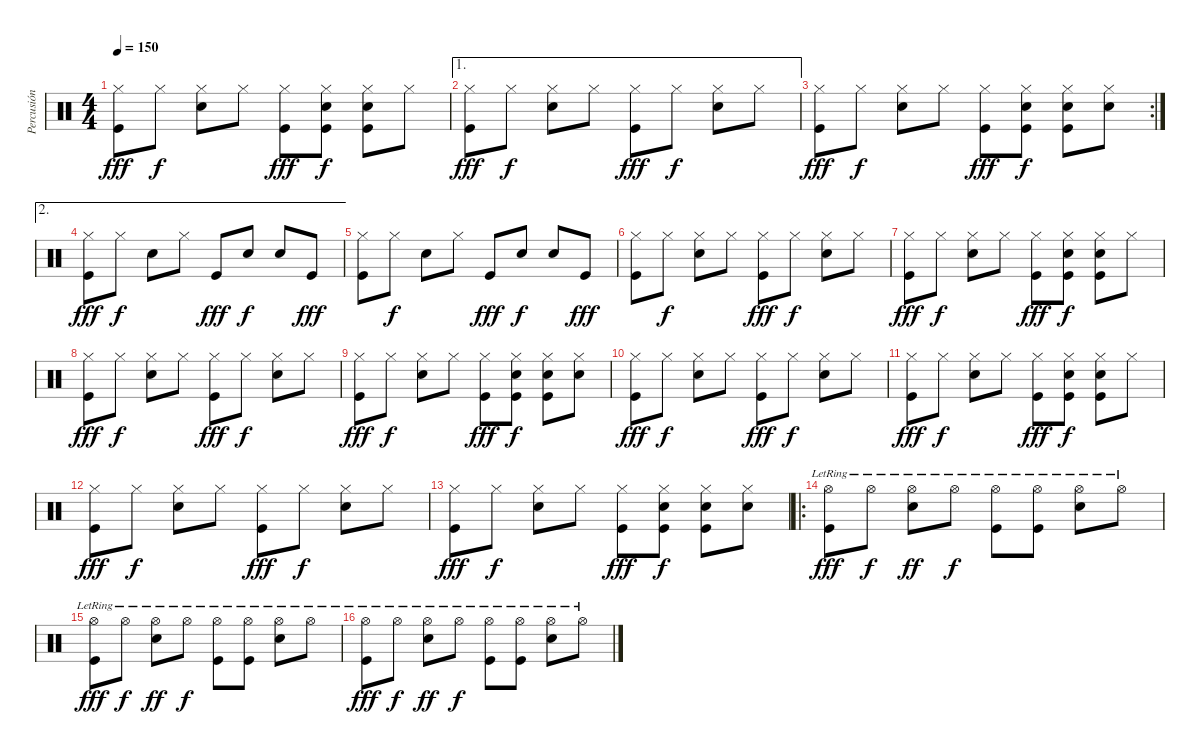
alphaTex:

\track ("Percusión" "Percusión") {instrument percussion}
\staff {score}
\articulation defaults
\ts (4 4)
\tempo 150
\clef neutral
\ks c
("Kick (hit)" "Hi-Hat (closed)").8{dy fff} "Hi-Hat (closed)".8{dy f} ("Snare (hit) 2" "Hi-Hat (closed)").8 "Hi-Hat (closed)".8 ("Kick (hit)" "Hi-Hat (closed)").8{dy fff} ("Snare (hit) 2" "Hi-Hat (closed)" "Kick (hit)").8{dy f} ("Snare (hit) 2" "Hi-Hat (closed)" "Kick (hit)").8 "Hi-Hat (closed)".8 |
\ae 1
("Kick (hit)" "Hi-Hat (closed)").8{dy fff} "Hi-Hat (closed)".8{dy f} ("Snare (hit) 2" "Hi-Hat (closed)").8 "Hi-Hat (closed)".8 ("Kick (hit)" "Hi-Hat (closed)").8{dy fff} "Hi-Hat (closed)".8{dy f} ("Snare (hit) 2" "Hi-Hat (closed)").8 "Hi-Hat (closed)".8 |
\rc 2
("Kick (hit)" "Hi-Hat (closed)").8{dy fff} "Hi-Hat (closed)".8{dy f} ("Snare (hit) 2" "Hi-Hat (closed)").8 "Hi-Hat (closed)".8 ("Kick (hit)" "Hi-Hat (closed)").8{dy fff} ("Snare (hit) 2" "Hi-Hat (closed)" "Kick (hit)").8{dy f} ("Snare (hit) 2" "Hi-Hat (closed)" "Kick (hit)").8 ("Snare (hit) 2" "Hi-Hat (closed)").8 |
\ae 2
("Kick (hit)" "Hi-Hat (closed)").8{dy fff} "Hi-Hat (closed)".8{dy f} "Snare (hit) 2".8 "Hi-Hat (closed)".8 "Kick (hit)".8{dy fff} "Snare (hit) 2".8{dy f} "Snare (hit) 2".8 "Kick (hit)".8{dy fff} |
("Kick (hit)" "Hi-Hat (closed)").8 "Hi-Hat (closed)".8{dy f} "Snare (hit) 2".8 "Hi-Hat (closed)".8 "Kick (hit)".8{dy fff} "Snare (hit) 2".8{dy f} "Snare (hit) 2".8 "Kick (hit)".8{dy fff} |
("Kick (hit)" "Hi-Hat (closed)").8 "Hi-Hat (closed)".8{dy f} ("Snare (hit) 2" "Hi-Hat (closed)").8 "Hi-Hat (closed)".8 ("Kick (hit)" "Hi-Hat (closed)").8{dy fff} "Hi-Hat (closed)".8{dy f} ("Snare (hit) 2" "Hi-Hat (closed)").8 "Hi-Hat (closed)".8 |
("Kick (hit)" "Hi-Hat (closed)").8{dy fff} "Hi-Hat (closed)".8{dy f} ("Snare (hit) 2" "Hi-Hat (closed)").8 "Hi-Hat (closed)".8 ("Kick (hit)" "Hi-Hat (closed)").8{dy fff} ("Snare (hit) 2" "Hi-Hat (closed)" "Kick (hit)").8{dy f} ("Snare (hit) 2" "Hi-Hat (closed)" "Kick (hit)").8 "Hi-Hat (closed)".8 |
("Kick (hit)" "Hi-Hat (closed)").8{dy fff} "Hi-Hat (closed)".8{dy f} ("Snare (hit) 2" "Hi-Hat (closed)").8 "Hi-Hat (closed)".8 ("Kick (hit)" "Hi-Hat (closed)").8{dy fff} "Hi-Hat (closed)".8{dy f} ("Snare (hit) 2" "Hi-Hat (closed)").8 "Hi-Hat (closed)".8 |
("Kick (hit)" "Hi-Hat (closed)").8{dy fff} "Hi-Hat (closed)".8{dy f} ("Snare (hit) 2" "Hi-Hat (closed)").8 "Hi-Hat (closed)".8 ("Kick (hit)" "Hi-Hat (closed)").8{dy fff} ("Snare (hit) 2" "Hi-Hat (closed)" "Kick (hit)").8{dy f} ("Snare (hit) 2" "Hi-Hat (closed)" "Kick (hit)").8 ("Snare (hit) 2" "Hi-Hat (closed)").8 |
("Kick (hit)" "Hi-Hat (closed)").8{dy fff} "Hi-Hat (closed)".8{dy f} ("Snare (hit) 2" "Hi-Hat (closed)").8 "Hi-Hat (closed)".8 ("Kick (hit)" "Hi-Hat (closed)").8{dy fff} "Hi-Hat (closed)".8{dy f} ("Snare (hit) 2" "Hi-Hat (closed)").8 "Hi-Hat (closed)".8 |
("Kick (hit)" "Hi-Hat (closed)").8{dy fff} "Hi-Hat (closed)".8{dy f} ("Snare (hit) 2" "Hi-Hat (closed)").8 "Hi-Hat (closed)".8 ("Kick (hit)" "Hi-Hat (closed)").8{dy fff} ("Snare (hit) 2" "Hi-Hat (closed)" "Kick (hit)").8{dy f} ("Snare (hit) 2" "Hi-Hat (closed)" "Kick (hit)").8 "Hi-Hat (closed)".8 |
("Kick (hit)" "Hi-Hat (closed)").8{dy fff} "Hi-Hat (closed)".8{dy f} ("Snare (hit) 2" "Hi-Hat (closed)").8 "Hi-Hat (closed)".8 ("Kick (hit)" "Hi-Hat (closed)").8{dy fff} "Hi-Hat (closed)".8{dy f} ("Snare (hit) 2" "Hi-Hat (closed)").8 "Hi-Hat (closed)".8 |
("Kick (hit)" "Hi-Hat (closed)").8{dy fff} "Hi-Hat (closed)".8{dy f} ("Snare (hit) 2" "Hi-Hat (closed)").8 "Hi-Hat (closed)".8 ("Kick (hit)" "Hi-Hat (closed)").8{dy fff} ("Snare (hit) 2" "Hi-Hat (closed)" "Kick (hit)").8{dy f} ("Snare (hit) 2" "Hi-Hat (closed)" "Kick (hit)").8 ("Snare (hit) 2" "Hi-Hat (closed)").8 |
\ro
("Kick (hit)" "Hi-Hat (open)"{lr}).8{dy fff} "Hi-Hat (open)"{lr}.8{dy f} ("Snare (hit) 2" "Hi-Hat (open)"{lr}).8{dy ff} "Hi-Hat (open)"{lr}.8{dy f} ("Kick (hit)" "Hi-Hat (open)"{lr}).8 ("Kick (hit)" "Hi-Hat (open)"{lr}).8 ("Snare (hit) 2" "Hi-Hat (open)"{lr}).8 "Hi-Hat (open)"{lr}.8 |
("Kick (hit)" "Hi-Hat (open)"{lr}).8{dy fff} "Hi-Hat (open)"{lr}.8{dy f} ("Snare (hit) 2" "Hi-Hat (open)"{lr}).8{dy ff} "Hi-Hat (open)"{lr}.8{dy f} ("Kick (hit)" "Hi-Hat (open)"{lr}).8 ("Kick (hit)" "Hi-Hat (open)"{lr}).8 ("Snare (hit) 2" "Hi-Hat (open)"{lr}).8 "Hi-Hat (open)"{lr}.8 |
("Kick (hit)" "Hi-Hat (open)"{lr}).8{dy fff} "Hi-Hat (open)"{lr}.8{dy f} ("Snare (hit) 2" "Hi-Hat (open)"{lr}).8{dy ff} "Hi-Hat (open)"{lr}.8{dy f} ("Kick (hit)" "Hi-Hat (open)"{lr}).8 ("Kick (hit)" "Hi-Hat (open)"{lr}).8 ("Snare (hit) 2" "Hi-Hat (open)"{lr}).8 "Hi-Hat (open)"{lr}.8
